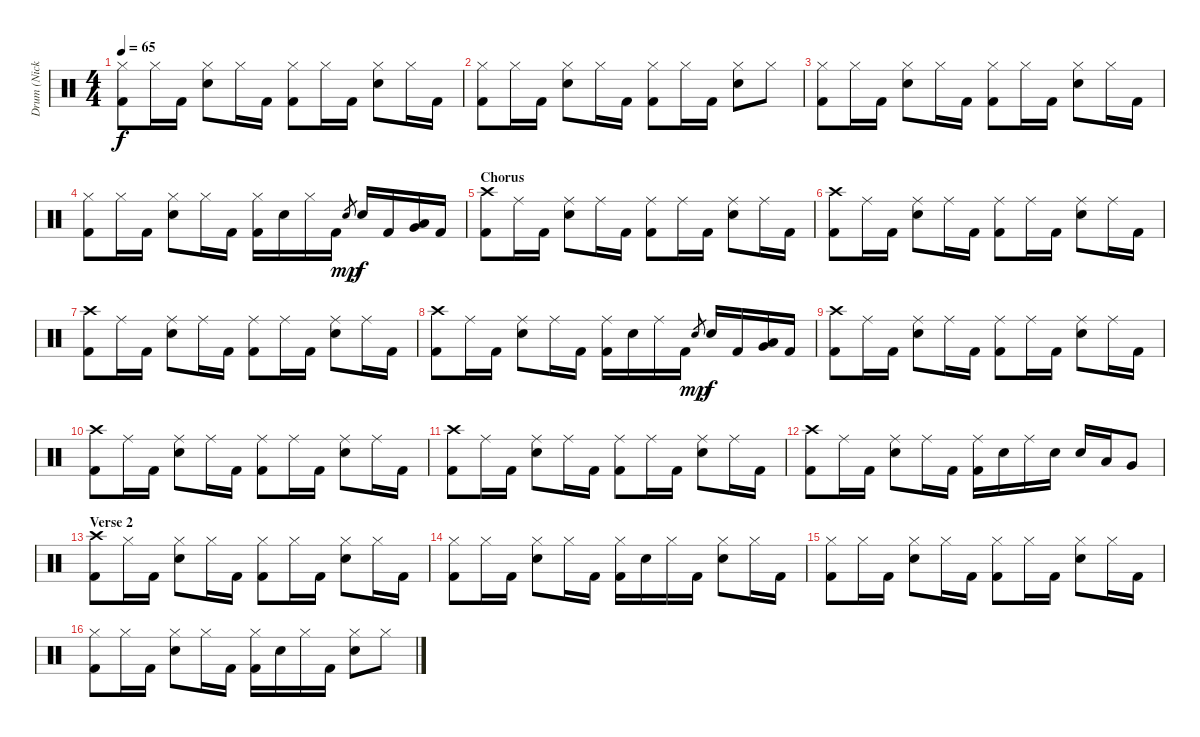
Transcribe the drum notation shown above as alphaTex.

\track ("Drum (Nick Oshiro)" "Drum (Nick") {instrument percussion}
\staff {score}
\articulation defaults
\ts (4 4)
\tempo 65
\clef neutral
\ks c
("Hi-Hat (closed)" "Kick (hit) 2").8{dy f} "Hi-Hat (closed)".16 "Kick (hit) 2".16 ("Hi-Hat (closed)" "Electric Snare (hit)").8 "Hi-Hat (closed)".16 "Kick (hit) 2".16 ("Hi-Hat (closed)" "Kick (hit) 2").8 "Hi-Hat (closed)".16 "Kick (hit) 2".16 ("Hi-Hat (closed)" "Electric Snare (hit)").8 "Hi-Hat (closed)".16 "Kick (hit) 2".16 |
("Hi-Hat (closed)" "Kick (hit) 2").8 "Hi-Hat (closed)".16 "Kick (hit) 2".16 ("Hi-Hat (closed)" "Electric Snare (hit)").8 "Hi-Hat (closed)".16 "Kick (hit) 2".16 ("Hi-Hat (closed)" "Kick (hit) 2").8 "Hi-Hat (closed)".16 "Kick (hit) 2".16 ("Hi-Hat (closed)" "Electric Snare (hit)").8 "Hi-Hat (closed)".8 |
("Hi-Hat (closed)" "Kick (hit) 2").8 "Hi-Hat (closed)".16 "Kick (hit) 2".16 ("Hi-Hat (closed)" "Electric Snare (hit)").8 "Hi-Hat (closed)".16 "Kick (hit) 2".16 ("Hi-Hat (closed)" "Kick (hit) 2").8 "Hi-Hat (closed)".16 "Kick (hit) 2".16 ("Hi-Hat (closed)" "Electric Snare (hit)").8 "Hi-Hat (closed)".16 "Kick (hit) 2".16 |
("Hi-Hat (closed)" "Kick (hit) 2").8 "Hi-Hat (closed)".16 "Kick (hit) 2".16 ("Hi-Hat (closed)" "Electric Snare (hit)").8 "Hi-Hat (closed)".16 "Kick (hit) 2".16 ("Hi-Hat (closed)" "Kick (hit) 2").16 "Electric Snare (hit)".16 "Hi-Hat (closed)".16 "Kick (hit) 2".16 "Electric Snare (hit)".8{gr dy mp} "Electric Snare (hit)".16{dy f} "Kick (hit) 2".16 ("Very Low Tom (hit)" "Low Tom (hit)").16 "Kick (hit) 2".16 |
\section ("" "Chorus")
("Crash high (hit)" "Kick (hit) 2").8 "Ride (middle)".16 "Kick (hit) 2".16 ("Ride (middle)" "Electric Snare (hit)").8 "Ride (middle)".16 "Kick (hit) 2".16 ("Ride (middle)" "Kick (hit) 2").8 "Ride (middle)".16 "Kick (hit) 2".16 ("Ride (middle)" "Electric Snare (hit)").8 "Ride (middle)".16 "Kick (hit) 2".16 |
("Crash high (hit)" "Kick (hit) 2").8 "Ride (middle)".16 "Kick (hit) 2".16 ("Ride (middle)" "Electric Snare (hit)").8 "Ride (middle)".16 "Kick (hit) 2".16 ("Ride (middle)" "Kick (hit) 2").8 "Ride (middle)".16 "Kick (hit) 2".16 ("Ride (middle)" "Electric Snare (hit)").8 "Ride (middle)".16 "Kick (hit) 2".16 |
("Crash high (hit)" "Kick (hit) 2").8 "Ride (middle)".16 "Kick (hit) 2".16 ("Ride (middle)" "Electric Snare (hit)").8 "Ride (middle)".16 "Kick (hit) 2".16 ("Ride (middle)" "Kick (hit) 2").8 "Ride (middle)".16 "Kick (hit) 2".16 ("Ride (middle)" "Electric Snare (hit)").8 "Ride (middle)".16 "Kick (hit) 2".16 |
("Crash high (hit)" "Kick (hit) 2").8 "Ride (middle)".16 "Kick (hit) 2".16 ("Ride (middle)" "Electric Snare (hit)").8 "Ride (middle)".16 "Kick (hit) 2".16 ("Ride (middle)" "Kick (hit) 2").16 "Electric Snare (hit)".16 "Ride (middle)".16 "Kick (hit) 2".16 "Electric Snare (hit)".8{gr dy mp} "Electric Snare (hit)".16{dy f} "Kick (hit) 2".16 ("Very Low Tom (hit)" "Low Tom (hit)").16 "Kick (hit) 2".16 |
("Crash high (hit)" "Kick (hit) 2").8 "Ride (middle)".16 "Kick (hit) 2".16 ("Ride (middle)" "Electric Snare (hit)").8 "Ride (middle)".16 "Kick (hit) 2".16 ("Ride (middle)" "Kick (hit) 2").8 "Ride (middle)".16 "Kick (hit) 2".16 ("Ride (middle)" "Electric Snare (hit)").8 "Ride (middle)".16 "Kick (hit) 2".16 |
("Crash high (hit)" "Kick (hit) 2").8 "Ride (middle)".16 "Kick (hit) 2".16 ("Ride (middle)" "Electric Snare (hit)").8 "Ride (middle)".16 "Kick (hit) 2".16 ("Ride (middle)" "Kick (hit) 2").8 "Ride (middle)".16 "Kick (hit) 2".16 ("Ride (middle)" "Electric Snare (hit)").8 "Ride (middle)".16 "Kick (hit) 2".16 |
("Crash high (hit)" "Kick (hit) 2").8 "Ride (middle)".16 "Kick (hit) 2".16 ("Ride (middle)" "Electric Snare (hit)").8 "Ride (middle)".16 "Kick (hit) 2".16 ("Ride (middle)" "Kick (hit) 2").8 "Ride (middle)".16 "Kick (hit) 2".16 ("Ride (middle)" "Electric Snare (hit)").8 "Ride (middle)".16 "Kick (hit) 2".16 |
("Crash high (hit)" "Kick (hit) 2").8 "Ride (middle)".16 "Kick (hit) 2".16 ("Ride (middle)" "Electric Snare (hit)").8 "Ride (middle)".16 "Kick (hit) 2".16 ("Ride (middle)" "Kick (hit) 2").16 "Electric Snare (hit)".16 "Ride (middle)".16 "Electric Snare (hit)".16 "Electric Snare (hit)".16 "Low Tom (hit)".16 "Very Low Tom (hit)".8 |
\section ("" "Verse 2")
("Crash high (hit)" "Kick (hit) 2").8 "Hi-Hat (closed)".16 "Kick (hit) 2".16 ("Hi-Hat (closed)" "Electric Snare (hit)").8 "Hi-Hat (closed)".16 "Kick (hit) 2".16 ("Hi-Hat (closed)" "Kick (hit) 2").8 "Hi-Hat (closed)".16 "Kick (hit) 2".16 ("Hi-Hat (closed)" "Electric Snare (hit)").8 "Hi-Hat (closed)".16 "Kick (hit) 2".16 |
("Hi-Hat (closed)" "Kick (hit) 2").8 "Hi-Hat (closed)".16 "Kick (hit) 2".16 ("Hi-Hat (closed)" "Electric Snare (hit)").8 "Hi-Hat (closed)".16 "Kick (hit) 2".16 ("Hi-Hat (closed)" "Kick (hit) 2").16 "Electric Snare (hit)".16 "Hi-Hat (closed)".16 "Kick (hit) 2".16 ("Hi-Hat (closed)" "Electric Snare (hit)").8 "Hi-Hat (closed)".16 "Kick (hit) 2".16 |
("Hi-Hat (closed)" "Kick (hit) 2").8 "Hi-Hat (closed)".16 "Kick (hit) 2".16 ("Hi-Hat (closed)" "Electric Snare (hit)").8 "Hi-Hat (closed)".16 "Kick (hit) 2".16 ("Hi-Hat (closed)" "Kick (hit) 2").8 "Hi-Hat (closed)".16 "Kick (hit) 2".16 ("Hi-Hat (closed)" "Electric Snare (hit)").8 "Hi-Hat (closed)".16 "Kick (hit) 2".16 |
("Hi-Hat (closed)" "Kick (hit) 2").8 "Hi-Hat (closed)".16 "Kick (hit) 2".16 ("Hi-Hat (closed)" "Electric Snare (hit)").8 "Hi-Hat (closed)".16 "Kick (hit) 2".16 ("Hi-Hat (closed)" "Kick (hit) 2").16 "Electric Snare (hit)".16 "Hi-Hat (closed)".16 "Kick (hit) 2".16 ("Hi-Hat (closed)" "Electric Snare (hit)").8 "Hi-Hat (closed)".8
